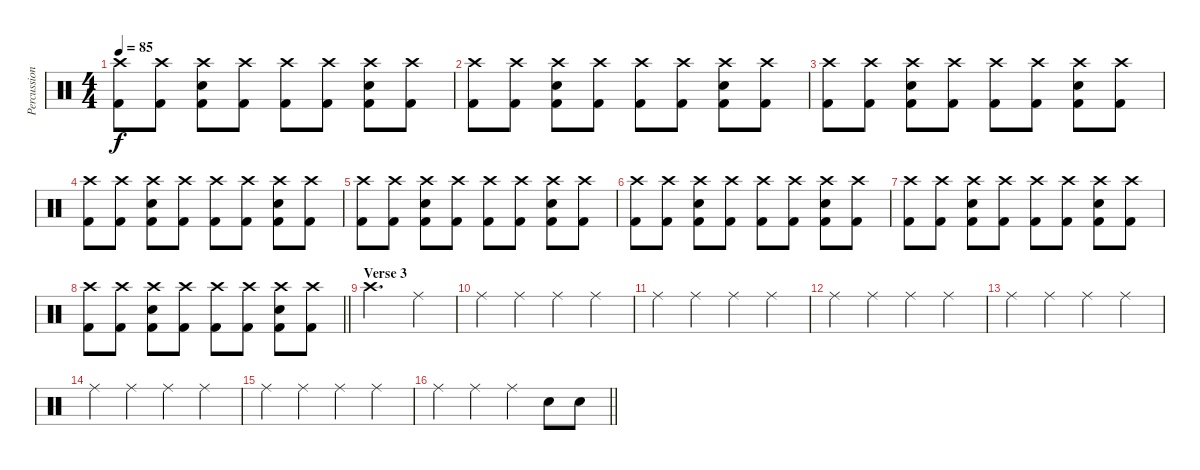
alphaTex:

\track ("Percussion" "Percussion") {instrument percussion}
\staff {score}
\articulation defaults
\ts (4 4)
\tempo 85
\clef neutral
\ks c
("Crash high (hit)" "Kick (hit) 2").8{dy f} ("Crash high (hit)" "Kick (hit) 2").8 ("Crash high (hit)" "Snare (hit) 2" "Kick (hit) 2").8 ("Crash high (hit)" "Kick (hit) 2").8 ("Crash high (hit)" "Kick (hit) 2").8 ("Crash high (hit)" "Kick (hit) 2").8 ("Crash high (hit)" "Snare (hit) 2" "Kick (hit) 2").8 ("Crash high (hit)" "Kick (hit) 2").8 |
("Crash high (hit)" "Kick (hit) 2").8 ("Crash high (hit)" "Kick (hit) 2").8 ("Crash high (hit)" "Snare (hit) 2" "Kick (hit) 2").8 ("Crash high (hit)" "Kick (hit) 2").8 ("Crash high (hit)" "Kick (hit) 2").8 ("Crash high (hit)" "Kick (hit) 2").8 ("Crash high (hit)" "Snare (hit) 2" "Kick (hit) 2").8 ("Crash high (hit)" "Kick (hit) 2").8 |
("Crash high (hit)" "Kick (hit) 2").8 ("Crash high (hit)" "Kick (hit) 2").8 ("Crash high (hit)" "Snare (hit) 2" "Kick (hit) 2").8 ("Crash high (hit)" "Kick (hit) 2").8 ("Crash high (hit)" "Kick (hit) 2").8 ("Crash high (hit)" "Kick (hit) 2").8 ("Crash high (hit)" "Snare (hit) 2" "Kick (hit) 2").8 ("Crash high (hit)" "Kick (hit) 2").8 |
("Crash high (hit)" "Kick (hit) 2").8 ("Crash high (hit)" "Kick (hit) 2").8 ("Crash high (hit)" "Snare (hit) 2" "Kick (hit) 2").8 ("Crash high (hit)" "Kick (hit) 2").8 ("Crash high (hit)" "Kick (hit) 2").8 ("Crash high (hit)" "Kick (hit) 2").8 ("Crash high (hit)" "Snare (hit) 2" "Kick (hit) 2").8 ("Crash high (hit)" "Kick (hit) 2").8 |
("Crash high (hit)" "Kick (hit) 2").8 ("Crash high (hit)" "Kick (hit) 2").8 ("Crash high (hit)" "Snare (hit) 2" "Kick (hit) 2").8 ("Crash high (hit)" "Kick (hit) 2").8 ("Crash high (hit)" "Kick (hit) 2").8 ("Crash high (hit)" "Kick (hit) 2").8 ("Crash high (hit)" "Snare (hit) 2" "Kick (hit) 2").8 ("Crash high (hit)" "Kick (hit) 2").8 |
("Crash high (hit)" "Kick (hit) 2").8 ("Crash high (hit)" "Kick (hit) 2").8 ("Crash high (hit)" "Snare (hit) 2" "Kick (hit) 2").8 ("Crash high (hit)" "Kick (hit) 2").8 ("Crash high (hit)" "Kick (hit) 2").8 ("Crash high (hit)" "Kick (hit) 2").8 ("Crash high (hit)" "Snare (hit) 2" "Kick (hit) 2").8 ("Crash high (hit)" "Kick (hit) 2").8 |
("Crash high (hit)" "Kick (hit) 2").8 ("Crash high (hit)" "Kick (hit) 2").8 ("Crash high (hit)" "Snare (hit) 2" "Kick (hit) 2").8 ("Crash high (hit)" "Kick (hit) 2").8 ("Crash high (hit)" "Kick (hit) 2").8 ("Crash high (hit)" "Kick (hit) 2").8 ("Crash high (hit)" "Snare (hit) 2" "Kick (hit) 2").8 ("Crash high (hit)" "Kick (hit) 2").8 |
\barLineRight lightlight
("Crash high (hit)" "Kick (hit) 2").8 ("Crash high (hit)" "Kick (hit) 2").8 ("Crash high (hit)" "Snare (hit) 2" "Kick (hit) 2").8 ("Crash high (hit)" "Kick (hit) 2").8 ("Crash high (hit)" "Kick (hit) 2").8 ("Crash high (hit)" "Kick (hit) 2").8 ("Crash high (hit)" "Snare (hit) 2" "Kick (hit) 2").8 ("Crash high (hit)" "Kick (hit) 2").8 |
\section ("" "Verse 3")
"Crash high (hit)".2{d} "Ride (middle)".4 |
"Ride (middle)".4 "Ride (middle)".4 "Ride (middle)".4 "Ride (middle)".4 |
"Ride (middle)".4 "Ride (middle)".4 "Ride (middle)".4 "Ride (middle)".4 |
"Ride (middle)".4 "Ride (middle)".4 "Ride (middle)".4 "Ride (middle)".4 |
"Ride (middle)".4 "Ride (middle)".4 "Ride (middle)".4 "Ride (middle)".4 |
"Ride (middle)".4 "Ride (middle)".4 "Ride (middle)".4 "Ride (middle)".4 |
"Ride (middle)".4 "Ride (middle)".4 "Ride (middle)".4 "Ride (middle)".4 |
\barLineRight lightlight "Ride (middle)".4 "Ride (middle)".4 "Ride (middle)".4 "Snare (hit) 2".8 "Snare (hit) 2".8
